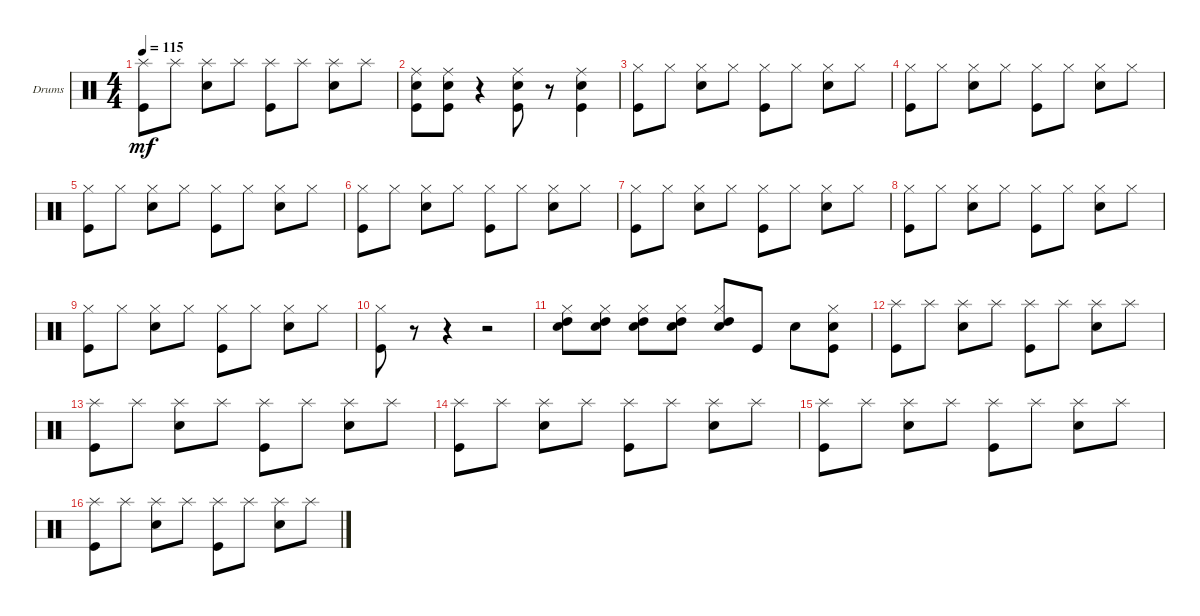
\defaultSystemsLayout 4
\bracketExtendMode groupsimilarinstruments
\firstSystemTrackNameOrientation horizontal
\otherSystemsTrackNameOrientation horizontal
\track ("Drumkit" "Drums") {instrument percussion}
\staff {score}
\articulation defaults
\ts (4 4)
\tempo 115
\clef neutral
\ks c
("Kick (hit)" "Splash (hit)").8{dy mf} "Splash (hit)".8 ("Snare (hit) 2" "Splash (hit)").8 "Splash (hit)".8 ("Kick (hit)" "Splash (hit)").8 "Splash (hit)".8 ("Snare (hit) 2" "Splash (hit)").8 "Splash (hit)".8 |
("Kick (hit)" "Snare (hit) 2" "Ride (middle)").8 ("Kick (hit)" "Snare (hit) 2" "Ride (middle)").8 r.4 ("Kick (hit)" "Snare (hit) 2" "Ride (middle)").8 r.8 ("Kick (hit)" "Snare (hit) 2" "Ride (middle)").4 |
("Kick (hit)" "Hi-Hat (closed)").8 "Hi-Hat (closed)".8 ("Snare (hit) 2" "Hi-Hat (closed)").8 "Hi-Hat (closed)".8 ("Kick (hit)" "Hi-Hat (closed)").8 "Hi-Hat (closed)".8 ("Snare (hit) 2" "Hi-Hat (closed)").8 "Hi-Hat (closed)".8 |
("Kick (hit)" "Hi-Hat (closed)").8 "Hi-Hat (closed)".8 ("Snare (hit) 2" "Hi-Hat (closed)").8 "Hi-Hat (closed)".8 ("Kick (hit)" "Hi-Hat (closed)").8 "Hi-Hat (closed)".8 ("Snare (hit) 2" "Hi-Hat (closed)").8 "Hi-Hat (closed)".8 |
("Kick (hit)" "Hi-Hat (closed)").8 "Hi-Hat (closed)".8 ("Snare (hit) 2" "Hi-Hat (closed)").8 "Hi-Hat (closed)".8 ("Kick (hit)" "Hi-Hat (closed)").8 "Hi-Hat (closed)".8 ("Snare (hit) 2" "Hi-Hat (closed)").8 "Hi-Hat (closed)".8 |
("Kick (hit)" "Hi-Hat (closed)").8 "Hi-Hat (closed)".8 ("Snare (hit) 2" "Hi-Hat (closed)").8 "Hi-Hat (closed)".8 ("Kick (hit)" "Hi-Hat (closed)").8 "Hi-Hat (closed)".8 ("Snare (hit) 2" "Hi-Hat (closed)").8 "Hi-Hat (closed)".8 |
("Kick (hit)" "Hi-Hat (closed)").8 "Hi-Hat (closed)".8 ("Snare (hit) 2" "Hi-Hat (closed)").8 "Hi-Hat (closed)".8 ("Kick (hit)" "Hi-Hat (closed)").8 "Hi-Hat (closed)".8 ("Snare (hit) 2" "Hi-Hat (closed)").8 "Hi-Hat (closed)".8 |
("Kick (hit)" "Hi-Hat (closed)").8 "Hi-Hat (closed)".8 ("Snare (hit) 2" "Hi-Hat (closed)").8 "Hi-Hat (closed)".8 ("Kick (hit)" "Hi-Hat (closed)").8 "Hi-Hat (closed)".8 ("Snare (hit) 2" "Hi-Hat (closed)").8 "Hi-Hat (closed)".8 |
("Kick (hit)" "Hi-Hat (closed)").8 "Hi-Hat (closed)".8 ("Snare (hit) 2" "Hi-Hat (closed)").8 "Hi-Hat (closed)".8 ("Kick (hit)" "Hi-Hat (closed)").8 "Hi-Hat (closed)".8 ("Snare (hit) 2" "Hi-Hat (closed)").8 "Hi-Hat (closed)".8 |
("Kick (hit)" "Hi-Hat (closed)").8 r.8 r.4 r.2 |
("High Tom (hit)" "Snare (hit) 2" "Hi-Hat (closed)").8 ("High Tom (hit)" "Snare (hit) 2" "Hi-Hat (closed)").8 ("High Tom (hit)" "Snare (hit) 2" "Hi-Hat (closed)").8 ("High Tom (hit)" "Snare (hit) 2" "Hi-Hat (closed)").8 ("High Tom (hit)" "Snare (hit) 2" "Hi-Hat (closed)").8 "Kick (hit)".8 "Snare (hit) 2".8 ("Kick (hit)" "Snare (hit) 2" "Hi-Hat (closed)").8 |
("Kick (hit)" "Splash (hit)").8 "Splash (hit)".8 ("Snare (hit) 2" "Splash (hit)").8 "Splash (hit)".8 ("Kick (hit)" "Splash (hit)").8 "Splash (hit)".8 ("Snare (hit) 2" "Splash (hit)").8 "Splash (hit)".8 |
("Kick (hit)" "Splash (hit)").8 "Splash (hit)".8 ("Snare (hit) 2" "Splash (hit)").8 "Splash (hit)".8 ("Kick (hit)" "Splash (hit)").8 "Splash (hit)".8 ("Snare (hit) 2" "Splash (hit)").8 "Splash (hit)".8 |
("Kick (hit)" "Splash (hit)").8 "Splash (hit)".8 ("Snare (hit) 2" "Splash (hit)").8 "Splash (hit)".8 ("Kick (hit)" "Splash (hit)").8 "Splash (hit)".8 ("Snare (hit) 2" "Splash (hit)").8 "Splash (hit)".8 |
("Kick (hit)" "Splash (hit)").8 "Splash (hit)".8 ("Snare (hit) 2" "Splash (hit)").8 "Splash (hit)".8 ("Kick (hit)" "Splash (hit)").8 "Splash (hit)".8 ("Snare (hit) 2" "Splash (hit)").8 "Splash (hit)".8 |
("Kick (hit)" "Splash (hit)").8 "Splash (hit)".8 ("Snare (hit) 2" "Splash (hit)").8 "Splash (hit)".8 ("Kick (hit)" "Splash (hit)").8 "Splash (hit)".8 ("Snare (hit) 2" "Splash (hit)").8 "Splash (hit)".8
